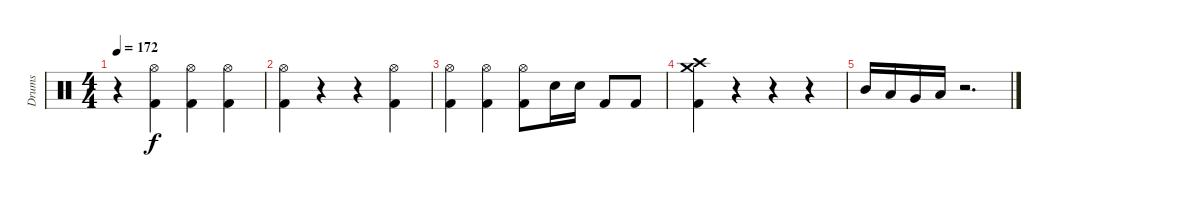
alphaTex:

\track ("Drums" "Drums") {instrument percussion}
\staff {score}
\articulation defaults
\ts (4 4)
\tempo 172
\clef neutral
\ks c
r.4{dy f} ("Hi-Hat (open)" "Kick (hit) 2").4 ("Hi-Hat (open)" "Kick (hit) 2").4 ("Hi-Hat (open)" "Kick (hit) 2").4 |
("Hi-Hat (open)" "Kick (hit) 2").4 r.4 r.4 ("Hi-Hat (open)" "Kick (hit) 2").4 |
("Hi-Hat (open)" "Kick (hit) 2").4 ("Hi-Hat (open)" "Kick (hit) 2").4 ("Hi-Hat (open)" "Kick (hit) 2").8 "Electric Snare (hit)".16 "Electric Snare (hit)".16 "Kick (hit) 2".8 "Kick (hit) 2".8 |
("Crash medium (hit)" "Crash high (hit)" "Kick (hit) 2").4 r.4 r.4 r.4 |
"Mid Tom (hit)".16 "Low Tom (hit)".16 "Very Low Tom (hit)".16 "Low Floor Tom (hit)".16 r.2{d}
